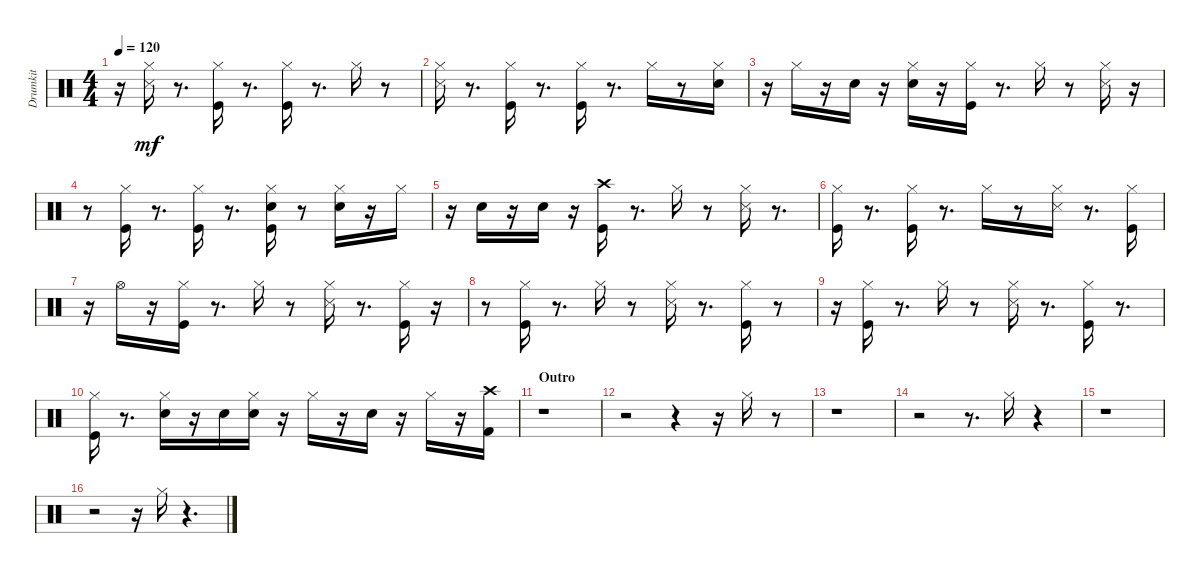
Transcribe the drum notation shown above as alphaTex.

\track ("Drumkit" "Drumkit") {instrument percussion}
\staff {score}
\articulation defaults
\ts (4 4)
\tempo 120
\clef neutral
\ks aminor
r.16{dy mf} ("Snare (side stick) 3" "Hi-Hat (closed)").16 r.8{d} ("Kick (hit)" "Hi-Hat (closed)").16 r.8{d} ("Kick (hit)" "Hi-Hat (closed)").16 r.8{d} "Hi-Hat (closed)".16 r.8 |
("Snare (side stick) 3" "Hi-Hat (closed)").16 r.8{d} ("Kick (hit)" "Hi-Hat (closed)").16 r.8{d} ("Kick (hit)" "Hi-Hat (closed)").16 r.8{d} "Hi-Hat (closed)".16 r.8 ("Snare (hit) 2" "Hi-Hat (closed)").16 |
r.16 "Hi-Hat (closed)".16 r.16 "Snare (hit) 2".16 r.16 ("Snare (hit) 2" "Hi-Hat (closed)").16 r.16 ("Kick (hit)" "Hi-Hat (closed)").16 r.8{d} "Hi-Hat (closed)".16 r.8 ("Snare (side stick) 3" "Hi-Hat (closed)").16 r.16 |
r.8 ("Kick (hit)" "Hi-Hat (closed)").16 r.8{d} ("Kick (hit)" "Hi-Hat (closed)").16 r.8{d} ("Kick (hit)" "Snare (hit) 2" "Hi-Hat (closed)").16 r.8 ("Snare (hit) 2" "Hi-Hat (closed)").16 r.16 "Hi-Hat (closed)".16 |
r.16 "Snare (hit) 2".16 r.16 "Snare (hit) 2".16 r.16 ("Kick (hit)" "Crash high (hit)").16 r.8{d} "Hi-Hat (closed)".16 r.8 ("Snare (side stick) 3" "Hi-Hat (closed)").16 r.8{d} |
("Kick (hit)" "Hi-Hat (closed)").16 r.8{d} ("Kick (hit)" "Hi-Hat (closed)").16 r.8{d} "Hi-Hat (closed)".16 r.8 ("Snare (side stick) 3" "Hi-Hat (closed)").16 r.8{d} ("Kick (hit)" "Hi-Hat (closed)").16 |
r.16 "Hi-Hat (open)".16 r.16 ("Kick (hit)" "Hi-Hat (closed)").16 r.8{d} "Hi-Hat (closed)".16 r.8 ("Snare (side stick) 3" "Hi-Hat (closed)").16 r.8{d} ("Kick (hit)" "Hi-Hat (closed)").16 r.16 |
r.8 ("Kick (hit)" "Hi-Hat (closed)").16 r.8{d} "Hi-Hat (closed)".16 r.8 ("Snare (side stick) 3" "Hi-Hat (closed)").16 r.8{d} ("Kick (hit)" "Hi-Hat (closed)").16 r.8 |
r.16 ("Kick (hit)" "Hi-Hat (closed)").16 r.8{d} "Hi-Hat (closed)".16 r.8 ("Snare (side stick) 3" "Hi-Hat (closed)").16 r.8{d} ("Kick (hit)" "Hi-Hat (closed)").16 r.8{d} |
("Kick (hit)" "Hi-Hat (closed)").16 r.8{d} ("Snare (hit) 2" "Hi-Hat (closed)").16 r.16 "Snare (hit) 2".16 ("Snare (hit) 2" "Hi-Hat (closed)").16 r.16 "Hi-Hat (closed)".16 r.16 "Snare (hit) 2".16 r.16 "Hi-Hat (closed)".16 r.16 ("Kick (hit) 2" "Crash high (hit)").16 |
\section ("" "Outro")
r.1 |
r.2 r.4 r.16 "Hi-Hat (closed)".16 r.8 |
r.1 |
r.2 r.8{d} "Hi-Hat (closed)".16 r.4 |
r.1 |
r.2 r.16 "Hi-Hat (closed)".16 r.4{d}
